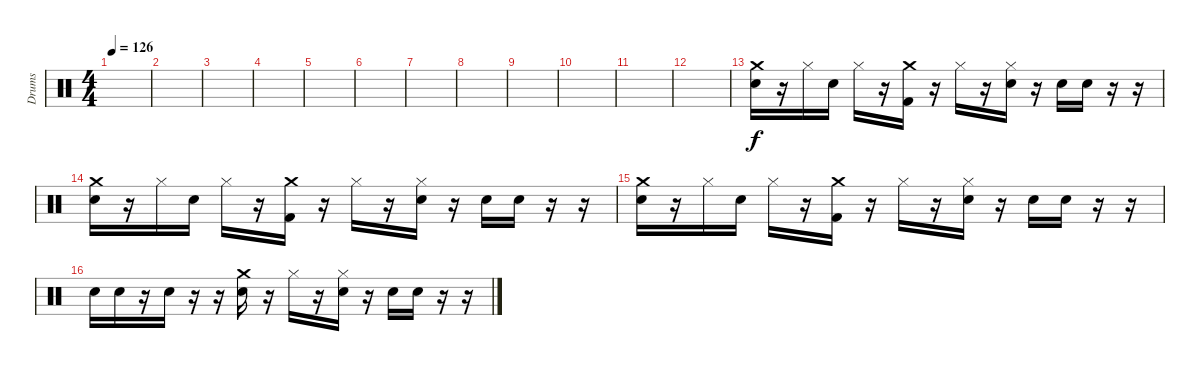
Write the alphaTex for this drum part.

\track ("Drums" "Drums") {instrument percussion}
\staff {score}
\articulation defaults
\ts (4 4)
\tempo 126
\clef neutral
\ks c
|
|
|
|
|
|
|
|
|
|
|
|
("Crash medium (hit)" "Snare (hit) 2").16{dy f} r.16 "Hi-Hat (closed)".16 "Snare (hit) 2".16 "Hi-Hat (closed)".16 r.16 ("Crash medium (hit)" "Kick (hit) 2").16 r.16 "Hi-Hat (closed)".16 r.16 ("Hi-Hat (closed)" "Snare (hit) 2").16 r.16 "Snare (hit) 2".16 "Snare (hit) 2".16 r.16 r.16 |
("Crash medium (hit)" "Snare (hit) 2").16 r.16 "Hi-Hat (closed)".16 "Snare (hit) 2".16 "Hi-Hat (closed)".16 r.16 ("Crash medium (hit)" "Kick (hit) 2").16 r.16 "Hi-Hat (closed)".16 r.16 ("Hi-Hat (closed)" "Snare (hit) 2").16 r.16 "Snare (hit) 2".16 "Snare (hit) 2".16 r.16 r.16 |
("Crash medium (hit)" "Snare (hit) 2").16 r.16 "Hi-Hat (closed)".16 "Snare (hit) 2".16 "Hi-Hat (closed)".16 r.16 ("Crash medium (hit)" "Kick (hit) 2").16 r.16 "Hi-Hat (closed)".16 r.16 ("Hi-Hat (closed)" "Snare (hit) 2").16 r.16 "Snare (hit) 2".16 "Snare (hit) 2".16 r.16 r.16 |
"Snare (hit) 2".16 "Snare (hit) 2".16 r.16 "Snare (hit) 2".16 r.16 r.16 ("Crash medium (hit)" "Snare (hit) 2").16 r.16 "Hi-Hat (closed)".16 r.16 ("Hi-Hat (closed)" "Snare (hit) 2").16 r.16 "Snare (hit) 2".16 "Snare (hit) 2".16 r.16 r.16
